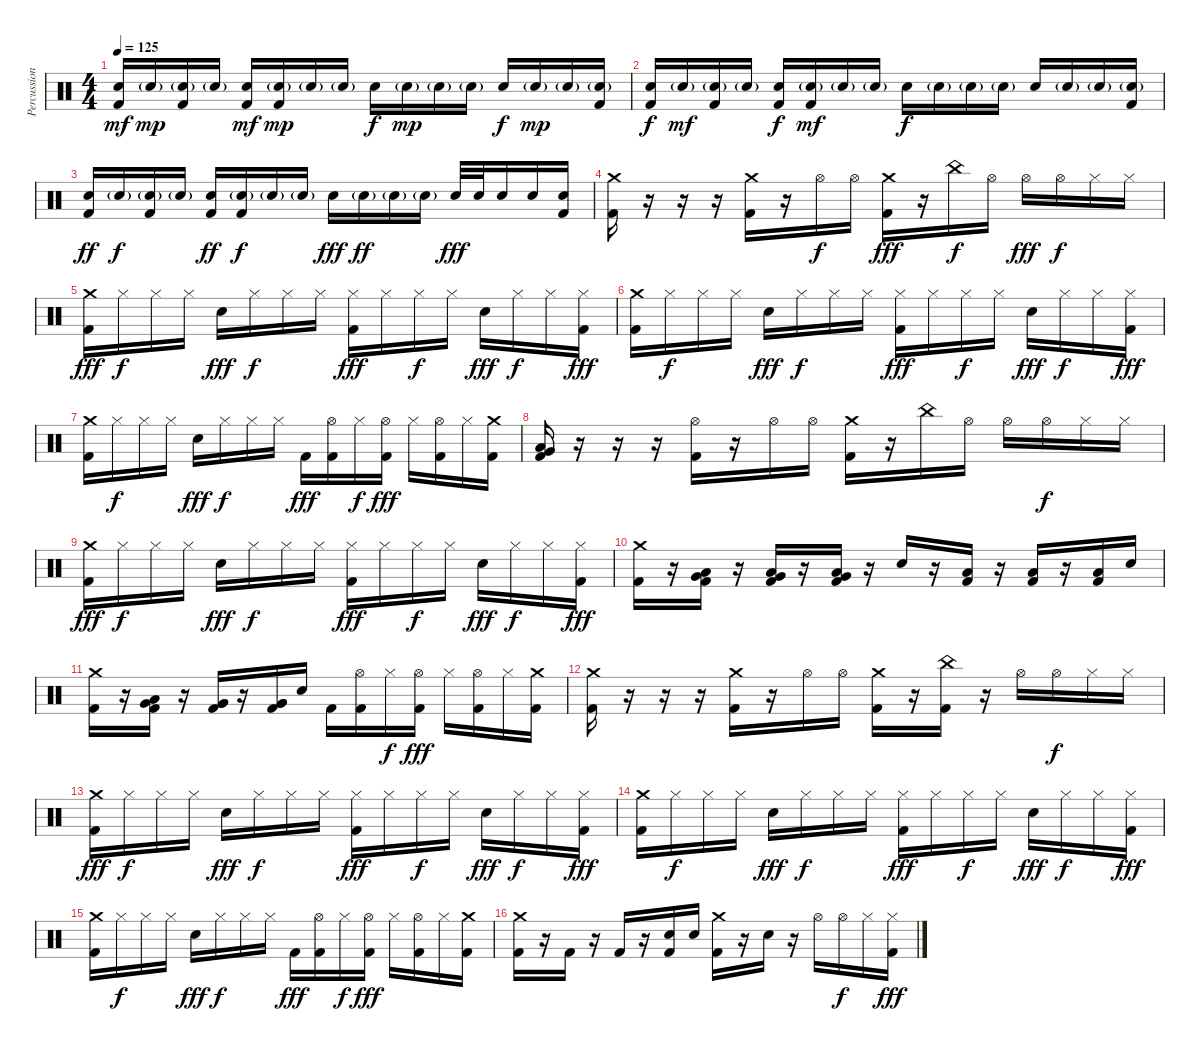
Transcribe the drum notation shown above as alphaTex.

\track ("Percussion" "Percussion") {instrument percussion}
\staff {score}
\articulation defaults
\ts (4 4)
\tempo 125
\clef neutral
\ks c
("Snare (hit) 2" "Kick (hit) 2").16{dy mf} "Snare (hit) 2"{g}.16{dy mp} ("Snare (hit) 2"{g} "Kick (hit) 2").16 "Snare (hit) 2"{g}.16 ("Snare (hit) 2" "Kick (hit) 2").16{dy mf} ("Snare (hit) 2"{g} "Kick (hit) 2").16{dy mp} "Snare (hit) 2"{g}.16 "Snare (hit) 2"{g}.16 "Snare (hit) 2".16{dy f} "Snare (hit) 2"{g}.16{dy mp} "Snare (hit) 2"{g}.16 "Snare (hit) 2"{g}.16 "Snare (hit) 2".16{dy f} "Snare (hit) 2"{g}.16{dy mp} "Snare (hit) 2"{g}.16 ("Snare (hit) 2"{g} "Kick (hit) 2").16 |
("Snare (hit) 2" "Kick (hit) 2").16{dy f} "Snare (hit) 2"{g}.16{dy mf} ("Snare (hit) 2"{g} "Kick (hit) 2").16 "Snare (hit) 2"{g}.16 ("Snare (hit) 2" "Kick (hit) 2").16{dy f} ("Snare (hit) 2"{g} "Kick (hit) 2").16{dy mf} "Snare (hit) 2"{g}.16 "Snare (hit) 2"{g}.16 "Snare (hit) 2".16{dy f} "Snare (hit) 2"{g}.16 "Snare (hit) 2"{g}.16 "Snare (hit) 2"{g}.16 "Snare (hit) 2".16 "Snare (hit) 2"{g}.16 "Snare (hit) 2"{g}.16 ("Snare (hit) 2"{g} "Kick (hit) 2").16 |
("Snare (hit) 2" "Kick (hit) 2").16{dy ff} "Snare (hit) 2"{g}.16{dy f} ("Snare (hit) 2"{g} "Kick (hit) 2").16 "Snare (hit) 2"{g}.16 ("Snare (hit) 2" "Kick (hit) 2").16{dy ff} ("Snare (hit) 2"{g} "Kick (hit) 2").16{dy f} "Snare (hit) 2"{g}.16 "Snare (hit) 2"{g}.16 "Snare (hit) 2".16{dy fff} "Snare (hit) 2"{g}.16{dy ff} "Snare (hit) 2"{g}.16 "Snare (hit) 2"{g}.16 "Snare (hit) 2".32{dy fff} "Snare (hit) 2".32 "Snare (hit) 2".16 "Electric Snare (hit)".16 ("Electric Snare (hit)" "Kick (hit) 2").16 |
("Crash medium (hit)" "Kick (hit) 2").16 r.16 r.16 r.16 ("Crash medium (hit)" "Kick (hit) 2").16 r.16 "Hi-Hat (open)".16{dy f} "Hi-Hat (open)".16 ("Crash medium (hit)" "Kick (hit) 2").16{dy fff} r.16 "China (hit)".16{dy f} "Hi-Hat (open)".16 "Hi-Hat (open)".16{dy fff} "Hi-Hat (open)".16{dy f} "Hi-Hat (closed)".16 "Hi-Hat (closed)".16 |
("Crash medium (hit)" "Kick (hit) 2").16{dy fff} "Hi-Hat (closed)".16{dy f} "Hi-Hat (closed)".16 "Hi-Hat (closed)".16 "Electric Snare (hit)".16{dy fff} "Hi-Hat (closed)".16{dy f} "Hi-Hat (closed)".16 "Hi-Hat (closed)".16 ("Hi-Hat (closed)" "Kick (hit) 2").16{dy fff} "Hi-Hat (closed)".16 "Hi-Hat (closed)".16{dy f} "Hi-Hat (closed)".16 "Electric Snare (hit)".16{dy fff} "Hi-Hat (closed)".16{dy f} "Hi-Hat (closed)".16 ("Hi-Hat (closed)" "Kick (hit) 2").16{dy fff} |
("Crash medium (hit)" "Kick (hit) 2").16 "Hi-Hat (closed)".16{dy f} "Hi-Hat (closed)".16 "Hi-Hat (closed)".16 "Electric Snare (hit)".16{dy fff} "Hi-Hat (closed)".16{dy f} "Hi-Hat (closed)".16 "Hi-Hat (closed)".16 ("Hi-Hat (closed)" "Kick (hit) 2").16{dy fff} "Hi-Hat (closed)".16 "Hi-Hat (closed)".16{dy f} "Hi-Hat (closed)".16 "Electric Snare (hit)".16{dy fff} "Hi-Hat (closed)".16{dy f} "Hi-Hat (closed)".16 ("Hi-Hat (closed)" "Kick (hit) 2").16{dy fff} |
("Crash medium (hit)" "Kick (hit) 2").16 "Hi-Hat (closed)".16{dy f} "Hi-Hat (closed)".16 "Hi-Hat (closed)".16 "Electric Snare (hit)".16{dy fff} "Hi-Hat (closed)".16{dy f} "Hi-Hat (closed)".16 "Hi-Hat (closed)".16 "Kick (hit) 2".16{dy fff} ("Hi-Hat (open)" "Kick (hit) 2").16 "Hi-Hat (closed)".16{dy f} ("Hi-Hat (open)" "Kick (hit) 2").16{dy fff} "Hi-Hat (closed)".16 ("Hi-Hat (open)" "Kick (hit) 2").16 "Hi-Hat (closed)".16 ("Crash medium (hit)" "Kick (hit) 2").16 |
("Very Low Tom (hit)" "Low Floor Tom (hit)" "Kick (hit) 2").16 r.16 r.16 r.16 ("Hi-Hat (open)" "Kick (hit) 2").16 r.16 "Hi-Hat (open)".16 "Hi-Hat (open)".16 ("Crash medium (hit)" "Kick (hit) 2").16 r.16 "China (hit)".16 "Hi-Hat (open)".16 "Hi-Hat (open)".16 "Hi-Hat (open)".16{dy f} "Hi-Hat (closed)".16 "Hi-Hat (closed)".16 |
("Crash medium (hit)" "Kick (hit) 2").16{dy fff} "Hi-Hat (closed)".16{dy f} "Hi-Hat (closed)".16 "Hi-Hat (closed)".16 "Electric Snare (hit)".16{dy fff} "Hi-Hat (closed)".16{dy f} "Hi-Hat (closed)".16 "Hi-Hat (closed)".16 ("Hi-Hat (closed)" "Kick (hit) 2").16{dy fff} "Hi-Hat (closed)".16 "Hi-Hat (closed)".16{dy f} "Hi-Hat (closed)".16 "Electric Snare (hit)".16{dy fff} "Hi-Hat (closed)".16{dy f} "Hi-Hat (closed)".16 ("Hi-Hat (closed)" "Kick (hit) 2").16{dy fff} |
("Crash medium (hit)" "Kick (hit) 2").16 r.16 ("Very Low Tom (hit)" "Low Floor Tom (hit)" "Kick (hit) 2").16 r.16 ("Very Low Tom (hit)" "Low Floor Tom (hit)" "Kick (hit) 2").16 r.16 ("Very Low Tom (hit)" "Low Floor Tom (hit)" "Kick (hit) 2").16 r.16 "Electric Snare (hit)".16 r.16 ("Low Floor Tom (hit)" "Kick (hit) 2").16 r.16 ("Low Floor Tom (hit)" "Kick (hit) 2").16 r.16 ("Low Floor Tom (hit)" "Kick (hit) 2").16 "Electric Snare (hit)".16 |
("Crash medium (hit)" "Kick (hit) 2").16 r.16 ("Very Low Tom (hit)" "Low Floor Tom (hit)" "Kick (hit) 2").16 r.16 ("Very Low Tom (hit)" "Very Low Tom (hit)" "Kick (hit) 2").16 r.16 ("Very Low Tom (hit)" "Very Low Tom (hit)" "Kick (hit) 2").16 "Electric Snare (hit)".16 "Kick (hit) 2".16 ("Hi-Hat (open)" "Kick (hit) 2").16 "Hi-Hat (closed)".16{dy f} ("Hi-Hat (open)" "Kick (hit) 2").16{dy fff} "Hi-Hat (closed)".16 ("Hi-Hat (open)" "Kick (hit) 2").16 "Hi-Hat (closed)".16 ("Crash medium (hit)" "Kick (hit) 2").16 |
("Crash medium (hit)" "Kick (hit) 2").16 r.16 r.16 r.16 ("Crash medium (hit)" "Kick (hit) 2").16 r.16 "Hi-Hat (open)".16 "Hi-Hat (open)".16 ("Crash medium (hit)" "Kick (hit) 2").16 r.16 ("China (hit)" "Kick (hit) 2").16 r.16 "Hi-Hat (open)".16 "Hi-Hat (open)".16{dy f} "Hi-Hat (closed)".16 "Hi-Hat (closed)".16 |
("Crash medium (hit)" "Kick (hit) 2").16{dy fff} "Hi-Hat (closed)".16{dy f} "Hi-Hat (closed)".16 "Hi-Hat (closed)".16 "Electric Snare (hit)".16{dy fff} "Hi-Hat (closed)".16{dy f} "Hi-Hat (closed)".16 "Hi-Hat (closed)".16 ("Hi-Hat (closed)" "Kick (hit) 2").16{dy fff} "Hi-Hat (closed)".16 "Hi-Hat (closed)".16{dy f} "Hi-Hat (closed)".16 "Electric Snare (hit)".16{dy fff} "Hi-Hat (closed)".16{dy f} "Hi-Hat (closed)".16 ("Hi-Hat (closed)" "Kick (hit) 2").16{dy fff} |
("Crash medium (hit)" "Kick (hit) 2").16 "Hi-Hat (closed)".16{dy f} "Hi-Hat (closed)".16 "Hi-Hat (closed)".16 "Electric Snare (hit)".16{dy fff} "Hi-Hat (closed)".16{dy f} "Hi-Hat (closed)".16 "Hi-Hat (closed)".16 ("Hi-Hat (closed)" "Kick (hit) 2").16{dy fff} "Hi-Hat (closed)".16 "Hi-Hat (closed)".16{dy f} "Hi-Hat (closed)".16 "Electric Snare (hit)".16{dy fff} "Hi-Hat (closed)".16{dy f} "Hi-Hat (closed)".16 ("Hi-Hat (closed)" "Kick (hit) 2").16{dy fff} |
("Crash medium (hit)" "Kick (hit) 2").16 "Hi-Hat (closed)".16{dy f} "Hi-Hat (closed)".16 "Hi-Hat (closed)".16 "Electric Snare (hit)".16{dy fff} "Hi-Hat (closed)".16{dy f} "Hi-Hat (closed)".16 "Hi-Hat (closed)".16 "Kick (hit) 2".16{dy fff} ("Hi-Hat (open)" "Kick (hit) 2").16 "Hi-Hat (closed)".16{dy f} ("Hi-Hat (open)" "Kick (hit) 2").16{dy fff} "Hi-Hat (closed)".16 ("Hi-Hat (open)" "Kick (hit) 2").16 "Hi-Hat (closed)".16 ("Crash medium (hit)" "Kick (hit) 2").16 |
("Crash medium (hit)" "Kick (hit) 2").16 r.16 "Kick (hit) 2".16 r.16 "Kick (hit) 2".16 r.16 ("Electric Snare (hit)" "Kick (hit) 2").16 "Electric Snare (hit)".16 ("Crash medium (hit)" "Kick (hit) 2").16 r.16 "Electric Snare (hit)".16 r.16 "Hi-Hat (open)".16 "Hi-Hat (open)".16{dy f} "Hi-Hat (closed)".16 ("Hi-Hat (closed)" "Kick (hit) 2").16{dy fff}
